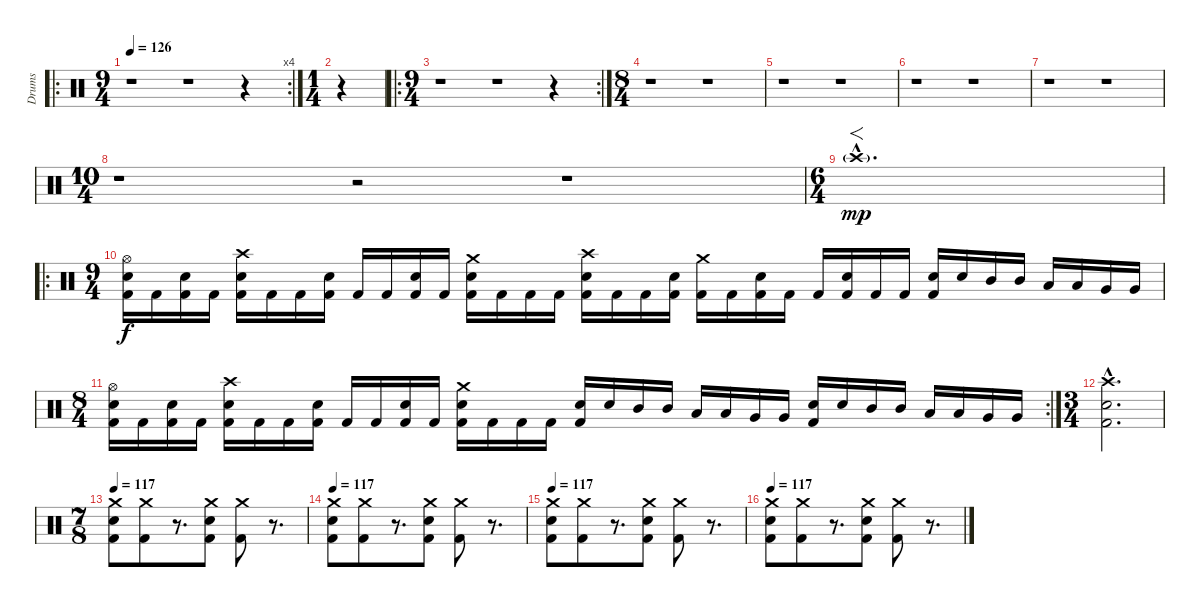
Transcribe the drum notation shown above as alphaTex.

\track ("Drums" "Drums") {instrument percussion}
\staff {score}
\articulation defaults
\ro
\rc 4
\ts (9 4)
\tempo 126
\clef neutral
\ks c
r.1{dy mp} r.1 r.4 |
\ts (1 4)
r.4 |
\ro
\rc 2
\ts (9 4)
r.1 r.1 r.4 |
\ts (8 4)
r.1 r.1 |
r.1 r.1 |
r.1 r.1 |
r.1 r.1 |
\ts (10 4)
r.1 r.2 r.1 |
\ts (6 4)
"Crash high (hit)"{g hac}.1{f d} |
\ro
\ts (9 4)
("Hi-Hat (open)" "Electric Snare (hit)" "Kick (hit) 2").16{dy f} "Kick (hit) 2".16 ("Electric Snare (hit)" "Kick (hit) 2").16 "Kick (hit) 2".16 ("Crash high (hit)" "Electric Snare (hit)" "Kick (hit) 2").16 "Kick (hit) 2".16 "Kick (hit) 2".16 ("Electric Snare (hit)" "Kick (hit) 2").16 "Kick (hit) 2".16 "Kick (hit) 2".16 ("Electric Snare (hit)" "Kick (hit) 2").16 "Kick (hit) 2".16 ("Crash medium (hit)" "Electric Snare (hit)" "Kick (hit) 2").16 "Kick (hit) 2".16 "Kick (hit) 2".16 "Kick (hit) 2".16 ("Crash high (hit)" "Electric Snare (hit)" "Kick (hit) 2").16 "Kick (hit) 2".16 "Kick (hit) 2".16 ("Electric Snare (hit)" "Kick (hit) 2").16 ("Crash medium (hit)" "Kick (hit) 2").16 "Kick (hit) 2".16 ("Electric Snare (hit)" "Kick (hit) 2").16 "Kick (hit) 2".16 "Kick (hit) 2".16 ("Electric Snare (hit)" "Kick (hit) 2").16 "Kick (hit) 2".16 "Kick (hit) 2".16 ("Electric Snare (hit)" "Kick (hit) 2").16 "Electric Snare (hit)".16 "Mid Tom (hit)".16 "Mid Tom (hit)".16 "Low Tom (hit)".16 "Low Tom (hit)".16 "Very Low Tom (hit)".16 "Very Low Tom (hit)".16 |
\rc 2
\ts (8 4)
("Hi-Hat (open)" "Electric Snare (hit)" "Kick (hit) 2").16 "Kick (hit) 2".16 ("Electric Snare (hit)" "Kick (hit) 2").16 "Kick (hit) 2".16 ("Crash high (hit)" "Electric Snare (hit)" "Kick (hit) 2").16 "Kick (hit) 2".16 "Kick (hit) 2".16 ("Electric Snare (hit)" "Kick (hit) 2").16 "Kick (hit) 2".16 "Kick (hit) 2".16 ("Electric Snare (hit)" "Kick (hit) 2").16 "Kick (hit) 2".16 ("Crash medium (hit)" "Electric Snare (hit)" "Kick (hit) 2").16 "Kick (hit) 2".16 "Kick (hit) 2".16 "Kick (hit) 2".16 ("Electric Snare (hit)" "Kick (hit) 2").16 "Electric Snare (hit)".16 "Mid Tom (hit)".16 "Mid Tom (hit)".16 "Low Tom (hit)".16 "Low Tom (hit)".16 "Very Low Tom (hit)".16 "Very Low Tom (hit)".16 ("Electric Snare (hit)" "Kick (hit) 2").16 "Electric Snare (hit)".16 "Mid Tom (hit)".16 "Mid Tom (hit)".16 "Low Tom (hit)".16 "Low Tom (hit)".16 "Very Low Tom (hit)".16 "Very Low Tom (hit)".16 |
\ts (3 4)
("Crash high (hit)"{hac} "Electric Snare (hit)"{hac} "Kick (hit) 2"{hac}).2{d} |
\ts (7 8)
\tempo 117
("Crash medium (hit)" "Electric Snare (hit)" "Kick (hit) 2").8 ("Crash medium (hit)" "Kick (hit) 2").8 r.8{d} ("Crash medium (hit)" "Electric Snare (hit)" "Kick (hit) 2").8 ("Crash medium (hit)" "Kick (hit) 2").8 r.8{d} |
\tempo 117
("Crash medium (hit)" "Electric Snare (hit)" "Kick (hit) 2").8 ("Crash medium (hit)" "Kick (hit) 2").8 r.8{d} ("Crash medium (hit)" "Electric Snare (hit)" "Kick (hit) 2").8 ("Crash medium (hit)" "Kick (hit) 2").8 r.8{d} |
\tempo 117
("Crash medium (hit)" "Electric Snare (hit)" "Kick (hit) 2").8 ("Crash medium (hit)" "Kick (hit) 2").8 r.8{d} ("Crash medium (hit)" "Electric Snare (hit)" "Kick (hit) 2").8 ("Crash medium (hit)" "Kick (hit) 2").8 r.8{d} |
\tempo 117
("Crash medium (hit)" "Electric Snare (hit)" "Kick (hit) 2").8 ("Crash medium (hit)" "Kick (hit) 2").8 r.8{d} ("Crash medium (hit)" "Electric Snare (hit)" "Kick (hit) 2").8 ("Crash medium (hit)" "Kick (hit) 2").8 r.8{d}
